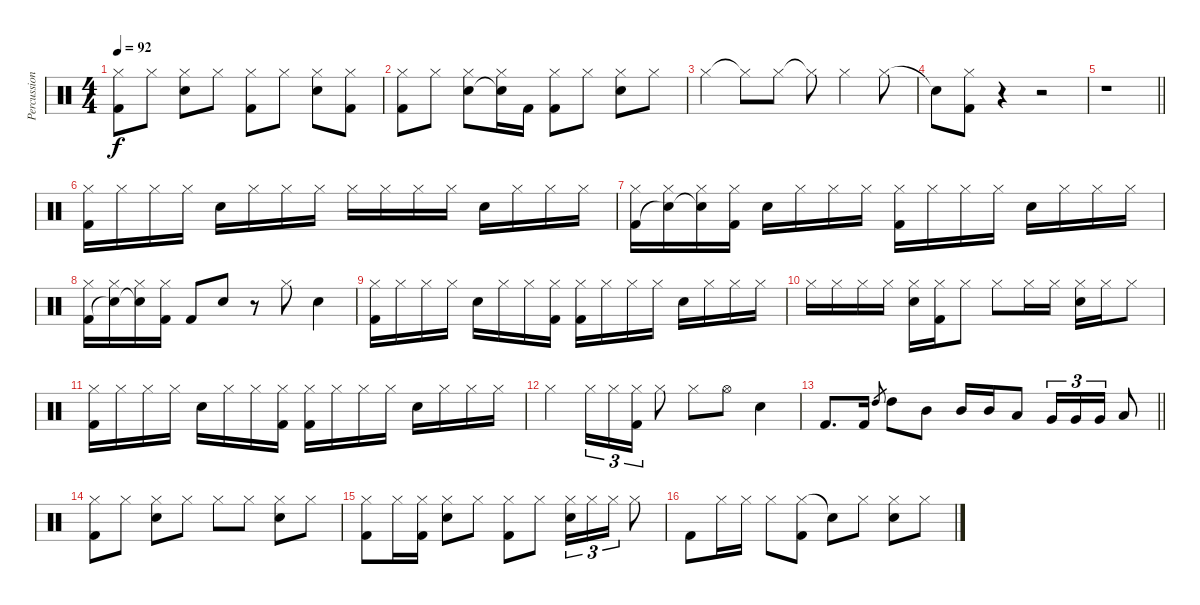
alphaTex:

\track ("Percussion" "Percussion") {instrument percussion}
\staff {score}
\articulation defaults
\ts (4 4)
\tempo 92
\clef neutral
\ks c
("Hi-Hat (closed)" "Kick (hit) 2").8{dy f} "Hi-Hat (closed)".8 ("Hi-Hat (closed)" "Snare (hit) 2").8 "Hi-Hat (closed)".8 ("Hi-Hat (closed)" "Kick (hit) 2").8 "Hi-Hat (closed)".8 ("Hi-Hat (closed)" "Snare (hit) 2").8 ("Hi-Hat (closed)" "Kick (hit) 2").8 |
("Hi-Hat (closed)" "Kick (hit) 2").8 "Hi-Hat (closed)".8 ("Hi-Hat (closed)" "Snare (hit) 2").8 ("Hi-Hat (closed)" "Snare (hit)"{t}).16 "Kick (hit) 2".16 ("Hi-Hat (closed)" "Kick (hit) 2").8 "Hi-Hat (closed)".8 ("Hi-Hat (closed)" "Snare (hit) 2").8 "Hi-Hat (closed)".8 |
"Hi-Hat (closed)".4 "Hi-Hat (closed)"{t}.8 "Hi-Hat (closed)".8 "Hi-Hat (closed)"{t}.8 "Hi-Hat (closed)".4 "Hi-Hat (closed)".8 |
"Snare (hit)"{t}.8 ("Hi-Hat (closed)" "Kick (hit) 2").8 r.4 r.2 |
\barLineRight lightlight
r.1 |
("Hi-Hat (closed)" "Kick (hit) 2").16 "Hi-Hat (closed)".16 "Hi-Hat (closed)".16 "Hi-Hat (closed)".16 "Snare (hit) 2".16 "Hi-Hat (closed)".16 "Hi-Hat (closed)".16 "Hi-Hat (closed)".16 "Hi-Hat (closed)".16 "Hi-Hat (closed)".16 "Hi-Hat (closed)".16 "Hi-Hat (closed)".16 "Snare (hit) 2".16 "Hi-Hat (closed)".16 "Hi-Hat (closed)".16 "Hi-Hat (closed)".16 |
("Hi-Hat (closed)" "Kick (hit) 2").16 ("Hi-Hat (closed)" "Snare (hit)"{t}).16 ("Hi-Hat (closed)" "Snare (hit)"{t}).16 ("Hi-Hat (closed)" "Kick (hit) 2").16 "Snare (hit) 2".16 "Hi-Hat (closed)".16 "Hi-Hat (closed)".16 "Hi-Hat (closed)".16 ("Hi-Hat (closed)" "Kick (hit) 2").16 "Hi-Hat (closed)".16 "Hi-Hat (closed)".16 "Hi-Hat (closed)".16 "Snare (hit) 2".16 "Hi-Hat (closed)".16 "Hi-Hat (closed)".16 "Hi-Hat (closed)".16 |
("Hi-Hat (closed)" "Kick (hit) 2").16 ("Hi-Hat (closed)" "Snare (hit)"{t}).16 ("Hi-Hat (closed)" "Snare (hit)"{t}).16 ("Hi-Hat (closed)" "Kick (hit) 2").16 "Kick (hit) 2".8 "Snare (hit) 2".8 r.8 "Hi-Hat (closed)".8 "Snare (hit) 2".4 |
("Hi-Hat (closed)" "Kick (hit) 2").16 "Hi-Hat (closed)".16 "Hi-Hat (closed)".16 "Hi-Hat (closed)".16 "Snare (hit) 2".16 "Hi-Hat (closed)".16 "Hi-Hat (closed)".16 ("Hi-Hat (closed)" "Kick (hit) 2").16 ("Hi-Hat (closed)" "Kick (hit) 2").16 "Hi-Hat (closed)".16 "Hi-Hat (closed)".16 "Hi-Hat (closed)".16 "Snare (hit) 2".16 "Hi-Hat (closed)".16 "Hi-Hat (closed)".16 "Hi-Hat (closed)".16 |
"Hi-Hat (closed)".16 "Hi-Hat (closed)".16 "Hi-Hat (closed)".16 "Hi-Hat (closed)".16 ("Hi-Hat (closed)" "Snare (hit) 2").16 ("Hi-Hat (closed)" "Kick (hit) 2").16 "Hi-Hat (closed)".8 "Hi-Hat (closed)".8 "Hi-Hat (closed)".16 "Hi-Hat (closed)".16 ("Hi-Hat (closed)" "Snare (hit) 2").16 "Hi-Hat (closed)".16 "Hi-Hat (closed)".8 |
("Hi-Hat (closed)" "Kick (hit) 2").16 "Hi-Hat (closed)".16 "Hi-Hat (closed)".16 "Hi-Hat (closed)".16 "Snare (hit) 2".16 "Hi-Hat (closed)".16 "Hi-Hat (closed)".16 ("Hi-Hat (closed)" "Kick (hit) 2").16 ("Hi-Hat (closed)" "Kick (hit) 2").16 "Hi-Hat (closed)".16 "Hi-Hat (closed)".16 "Hi-Hat (closed)".16 "Snare (hit) 2".16 "Hi-Hat (closed)".16 "Hi-Hat (closed)".16 "Hi-Hat (closed)".16 |
"Hi-Hat (closed)".4 "Hi-Hat (closed)".16{tu (3 2)} "Hi-Hat (closed)".16{tu (3 2)} ("Hi-Hat (closed)" "Kick (hit) 2").16{tu (3 2)} "Hi-Hat (closed)".8 "Hi-Hat (closed)".8 "Hi-Hat (open)".8 "Snare (hit) 2".4 |
\barLineRight lightlight "Kick (hit) 2".8{d} "Kick (hit) 2".16 "High Tom (hit)".8{gr} "High Tom (hit)".8 "Mid Tom (hit)".8 "Mid Tom (hit)".16 "Mid Tom (hit)".16 "Low Tom (hit)".8 "Very Low Tom (hit)".16{tu (3 2)} "Very Low Tom (hit)".16{tu (3 2)} "Very Low Tom (hit)".16{tu (3 2)} "Low Floor Tom (hit)".8
|
("Hi-Hat (closed)" "Kick (hit) 2").8 "Hi-Hat (closed)".8 ("Hi-Hat (closed)" "Snare (hit) 2").8 "Hi-Hat (closed)".8 "Hi-Hat (closed)".8 "Hi-Hat (closed)".8 ("Hi-Hat (closed)" "Snare (hit) 2").8 "Hi-Hat (closed)".8 |
("Hi-Hat (closed)" "Kick (hit) 2").8 "Hi-Hat (closed)".16 ("Hi-Hat (closed)" "Kick (hit) 2").16 ("Hi-Hat (closed)" "Snare (hit) 2").8 "Hi-Hat (closed)".8 ("Hi-Hat (closed)" "Kick (hit) 2").8 "Hi-Hat (closed)".8 ("Hi-Hat (closed)" "Snare (hit) 2").16{tu (3 2)} "Hi-Hat (closed)".16{tu (3 2)} "Hi-Hat (closed)".16{tu (3 2)} "Hi-Hat (closed)".8 |
"Kick (hit) 2".8 "Hi-Hat (closed)".16 "Hi-Hat (closed)".16 "Hi-Hat (closed)".8 ("Hi-Hat (closed)" "Kick (hit) 2").8 "Snare (hit)"{t}.8 "Hi-Hat (closed)".8 ("Hi-Hat (closed)" "Snare (hit) 2").8 "Hi-Hat (closed)".8
